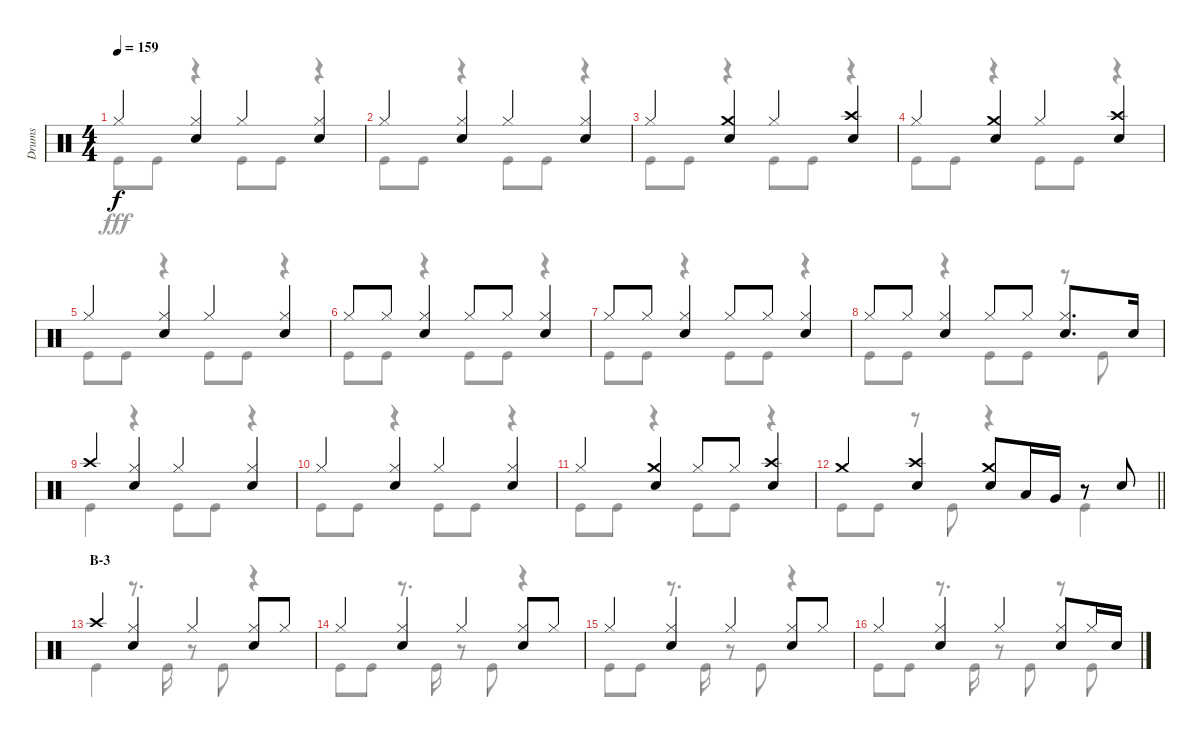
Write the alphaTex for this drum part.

\track ("Drums" "Drums") {instrument percussion}
\staff {score}
\articulation defaults
\voice
\ts (4 4)
\tempo 159
\clef neutral
\ks c "Hi-Hat (closed)".4{dy f}
("Hi-Hat (closed)" "Snare (hit) 2").4 "Hi-Hat (closed)".4 ("Hi-Hat (closed)" "Snare (hit) 2").4 |
"Hi-Hat (closed)".4 ("Hi-Hat (closed)" "Snare (hit) 2").4 "Hi-Hat (closed)".4 ("Hi-Hat (closed)" "Snare (hit) 2").4 |
"Hi-Hat (closed)".4 ("Crash medium (hit)" "Snare (hit) 2").4 "Hi-Hat (closed)".4 ("Crash high (hit)" "Snare (hit) 2").4 |
"Hi-Hat (closed)".4 ("Crash medium (hit)" "Snare (hit) 2").4 "Hi-Hat (closed)".4 ("Crash high (hit)" "Snare (hit) 2").4 |
"Hi-Hat (closed)".4 ("Hi-Hat (closed)" "Snare (hit) 2").4 "Hi-Hat (closed)".4 ("Hi-Hat (closed)" "Snare (hit) 2").4 |
"Hi-Hat (closed)".8 "Hi-Hat (closed)".8 ("Hi-Hat (closed)" "Snare (hit) 2").4 "Hi-Hat (closed)".8 "Hi-Hat (closed)".8 ("Hi-Hat (closed)" "Snare (hit) 2").4 |
"Hi-Hat (closed)".8 "Hi-Hat (closed)".8 ("Hi-Hat (closed)" "Snare (hit) 2").4 "Hi-Hat (closed)".8 "Hi-Hat (closed)".8 ("Hi-Hat (closed)" "Snare (hit) 2").4 |
"Hi-Hat (closed)".8 "Hi-Hat (closed)".8 ("Hi-Hat (closed)" "Snare (hit) 2").4 "Hi-Hat (closed)".8 "Hi-Hat (closed)".8 ("Hi-Hat (closed)" "Snare (hit) 2").8{d} "Snare (hit) 2".16 |
"Crash high (hit)".4 ("Hi-Hat (closed)" "Snare (hit) 2").4 "Hi-Hat (closed)".4 ("Hi-Hat (closed)" "Snare (hit) 2").4 |
"Hi-Hat (closed)".4 ("Hi-Hat (closed)" "Snare (hit) 2").4 "Hi-Hat (closed)".4 ("Hi-Hat (closed)" "Snare (hit) 2").4 |
"Hi-Hat (closed)".4 ("Crash medium (hit)" "Snare (hit) 2").4 "Hi-Hat (closed)".8 "Hi-Hat (closed)".8 ("Crash high (hit)" "Snare (hit) 2").4 |
\barLineRight lightlight "Crash medium (hit)".4
("Crash high (hit)" "Snare (hit) 2").4 ("Crash medium (hit)" "Snare (hit) 2").8 "Low Tom (hit)".16 "Very Low Tom (hit)".16 r.8 "Snare (hit) 2".8 |
\section ("" "B-3")
"Crash high (hit)".4 ("Hi-Hat (closed)" "Snare (hit) 2").4 "Hi-Hat (closed)".4 ("Hi-Hat (closed)" "Snare (hit) 2").8 "Hi-Hat (closed)".8 |
"Hi-Hat (closed)".4 ("Hi-Hat (closed)" "Snare (hit) 2").4 "Hi-Hat (closed)".4 ("Hi-Hat (closed)" "Snare (hit) 2").8 "Hi-Hat (closed)".8 |
"Hi-Hat (closed)".4 ("Hi-Hat (closed)" "Snare (hit) 2").4 "Hi-Hat (closed)".4 ("Hi-Hat (closed)" "Snare (hit) 2").8 "Hi-Hat (closed)".8 |
"Hi-Hat (closed)".4 ("Hi-Hat (closed)" "Snare (hit) 2").4 "Hi-Hat (closed)".4 ("Hi-Hat (closed)" "Snare (hit) 2").8 "Hi-Hat (closed)".16 "Snare (hit) 2".16
\voice
\clef neutral
\ottava regular
\simile none
\ks c "Kick (hit)".8{dy fff} "Kick (hit)".8
r.4 "Kick (hit)".8 "Kick (hit)".8 r.4 |
"Kick (hit)".8 "Kick (hit)".8 r.4 "Kick (hit)".8 "Kick (hit)".8 r.4 |
"Kick (hit)".8 "Kick (hit)".8 r.4 "Kick (hit)".8 "Kick (hit)".8 r.4 |
"Kick (hit)".8 "Kick (hit)".8 r.4 "Kick (hit)".8 "Kick (hit)".8 r.4 |
"Kick (hit)".8 "Kick (hit)".8 r.4 "Kick (hit)".8 "Kick (hit)".8 r.4 |
"Kick (hit)".8 "Kick (hit)".8 r.4 "Kick (hit)".8 "Kick (hit)".8 r.4 |
"Kick (hit)".8 "Kick (hit)".8 r.4 "Kick (hit)".8 "Kick (hit)".8 r.4 |
"Kick (hit)".8 "Kick (hit)".8 r.4 "Kick (hit)".8 "Kick (hit)".8 r.8 "Kick (hit)".8 |
"Kick (hit)".4 r.4 "Kick (hit)".8 "Kick (hit)".8 r.4 |
"Kick (hit)".8 "Kick (hit)".8 r.4 "Kick (hit)".8 "Kick (hit)".8 r.4 |
"Kick (hit)".8 "Kick (hit)".8 r.4 "Kick (hit)".8 "Kick (hit)".8 r.4 |
\barLineRight lightlight "Kick (hit)".8 "Kick (hit)".8
r.8 "Kick (hit)".8 r.4 "Kick (hit)".4 |
"Kick (hit)".4 r.8{d} "Kick (hit)".16 r.8 "Kick (hit)".8 r.4 |
"Kick (hit)".8 "Kick (hit)".8 r.8{d} "Kick (hit)".16 r.8 "Kick (hit)".8 r.4 |
"Kick (hit)".8 "Kick (hit)".8 r.8{d} "Kick (hit)".16 r.8 "Kick (hit)".8 r.4 |
"Kick (hit)".8 "Kick (hit)".8 r.8{d} "Kick (hit)".16 r.8 "Kick (hit)".8 r.8 "Kick (hit)".8
